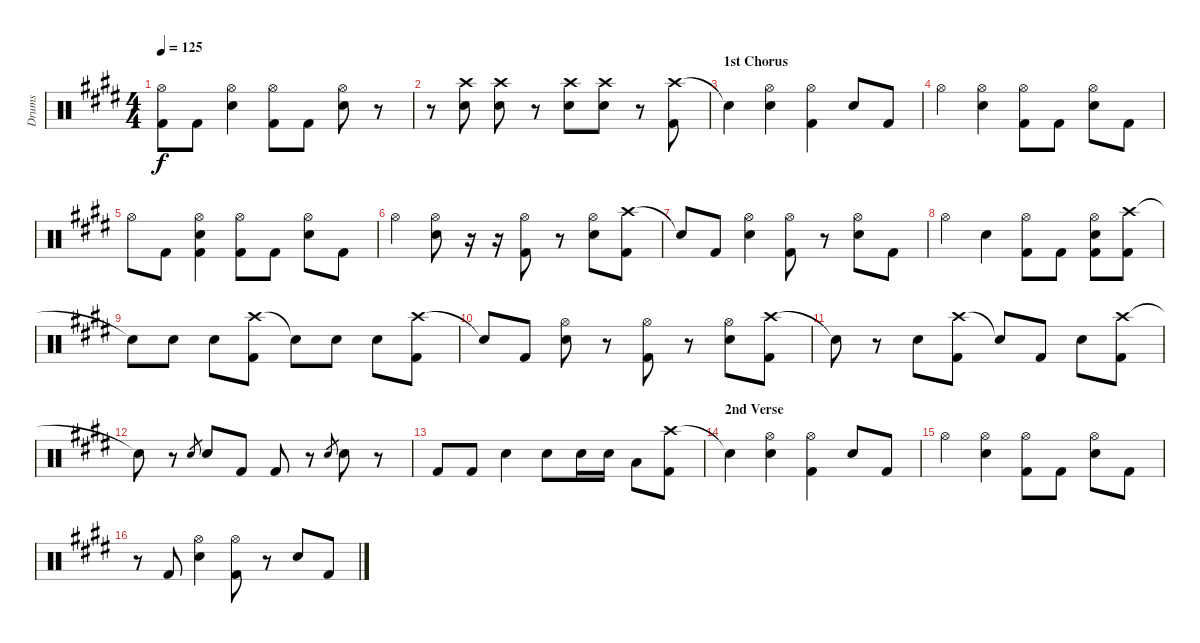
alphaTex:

\track ("Drums" "Drums") {instrument percussion}
\staff {score}
\articulation defaults
\ts (4 4)
\tempo 125
\clef neutral
\ks e
("Hi-Hat (open)"{t} "Kick (hit) 2"{t}).8{dy f} "Kick (hit) 2".8 ("Hi-Hat (open)" "Electric Snare (hit)").4 ("Hi-Hat (open)" "Kick (hit) 2").8 "Kick (hit) 2".8 ("Hi-Hat (open)" "Electric Snare (hit)").8 r.8 |
r.8 ("Crash high (hit)" "Electric Snare (hit)").8 ("Crash high (hit)" "Electric Snare (hit)").8 r.8 ("Crash high (hit)" "Electric Snare (hit)").8 ("Crash high (hit)" "Electric Snare (hit)").8 r.8 ("Crash high (hit)" "Kick (hit) 2").8 |
\section ("" "1st Chorus")
"Snare (hit)"{t}.4 ("Hi-Hat (open)" "Electric Snare (hit)").4 ("Hi-Hat (open)" "Kick (hit) 2").4 "Electric Snare (hit)".8 "Kick (hit) 2".8 |
"Hi-Hat (open)".4 ("Hi-Hat (open)" "Electric Snare (hit)").4 ("Hi-Hat (open)" "Kick (hit) 2").8 "Kick (hit) 2".8 ("Hi-Hat (open)" "Electric Snare (hit)").8 "Kick (hit) 2".8 |
"Hi-Hat (open)".8 "Kick (hit) 2".8 ("Hi-Hat (open)" "Electric Snare (hit)" "Kick (hit) 2").4 ("Hi-Hat (open)" "Kick (hit) 2").8 "Kick (hit) 2".8 ("Hi-Hat (open)" "Electric Snare (hit)").8 "Kick (hit) 2".8 |
"Hi-Hat (open)".4 ("Hi-Hat (open)" "Electric Snare (hit)").8 r.16 r.16 ("Hi-Hat (open)" "Kick (hit) 2").8 r.8 ("Hi-Hat (open)" "Electric Snare (hit)").8 ("Crash high (hit)" "Kick (hit) 2").8 |
"Snare (hit)"{t}.8 "Kick (hit) 2".8 ("Hi-Hat (open)" "Electric Snare (hit)").4 ("Hi-Hat (open)" "Kick (hit) 2").8 r.8 ("Hi-Hat (open)" "Electric Snare (hit)").8 "Kick (hit) 2".8 |
"Hi-Hat (open)".4 "Electric Snare (hit)".4 ("Hi-Hat (open)" "Kick (hit) 2").8 "Kick (hit) 2".8 ("Hi-Hat (open)" "Electric Snare (hit)" "Kick (hit) 2").8 ("Crash high (hit)" "Kick (hit) 2").8 |
"Snare (hit)"{t}.8 "Electric Snare (hit)".8 "Electric Snare (hit)".8 ("Crash high (hit)" "Kick (hit) 2").8 "Snare (hit)"{t}.8 "Electric Snare (hit)".8 "Electric Snare (hit)".8 ("Crash high (hit)" "Kick (hit) 2").8 |
"Snare (hit)"{t}.8 "Kick (hit) 2".8 ("Hi-Hat (open)" "Electric Snare (hit)").8 r.8 ("Hi-Hat (open)" "Kick (hit) 2").8 r.8 ("Hi-Hat (open)" "Electric Snare (hit)").8 ("Crash high (hit)" "Kick (hit) 2").8 |
"Snare (hit)"{t}.8 r.8 "Electric Snare (hit)".8 ("Crash high (hit)" "Kick (hit) 2").8 "Snare (hit)"{t}.8 "Kick (hit) 2".8 "Electric Snare (hit)".8 ("Crash high (hit)" "Kick (hit) 2").8 |
"Snare (hit)"{t}.8 r.8 "Electric Snare (hit)".8{gr} "Electric Snare (hit)".8 "Kick (hit) 2".8 "Kick (hit) 2".8 r.8 "Electric Snare (hit)".8{gr} "Electric Snare (hit)".8 r.8 |
"Kick (hit) 2".8 "Kick (hit) 2".8 "Electric Snare (hit)".4 "Electric Snare (hit)".8 "Electric Snare (hit)".16 "Electric Snare (hit)".16 "Low Tom (hit)".8 ("Crash high (hit)" "Kick (hit) 2").8 |
\section ("" "2nd Verse")
"Snare (hit)"{t}.4 ("Hi-Hat (open)" "Electric Snare (hit)").4 ("Hi-Hat (open)" "Kick (hit) 2").4 "Electric Snare (hit)".8 "Kick (hit) 2".8 |
"Hi-Hat (open)".4 ("Hi-Hat (open)" "Electric Snare (hit)").4 ("Hi-Hat (open)" "Kick (hit) 2").8 "Kick (hit) 2".8 ("Hi-Hat (open)" "Electric Snare (hit)").8 "Kick (hit) 2".8 |
r.8 "Kick (hit) 2".8 ("Hi-Hat (open)" "Electric Snare (hit)").4 ("Hi-Hat (open)" "Kick (hit) 2").8 r.8 "Electric Snare (hit)".8 "Kick (hit) 2".8
